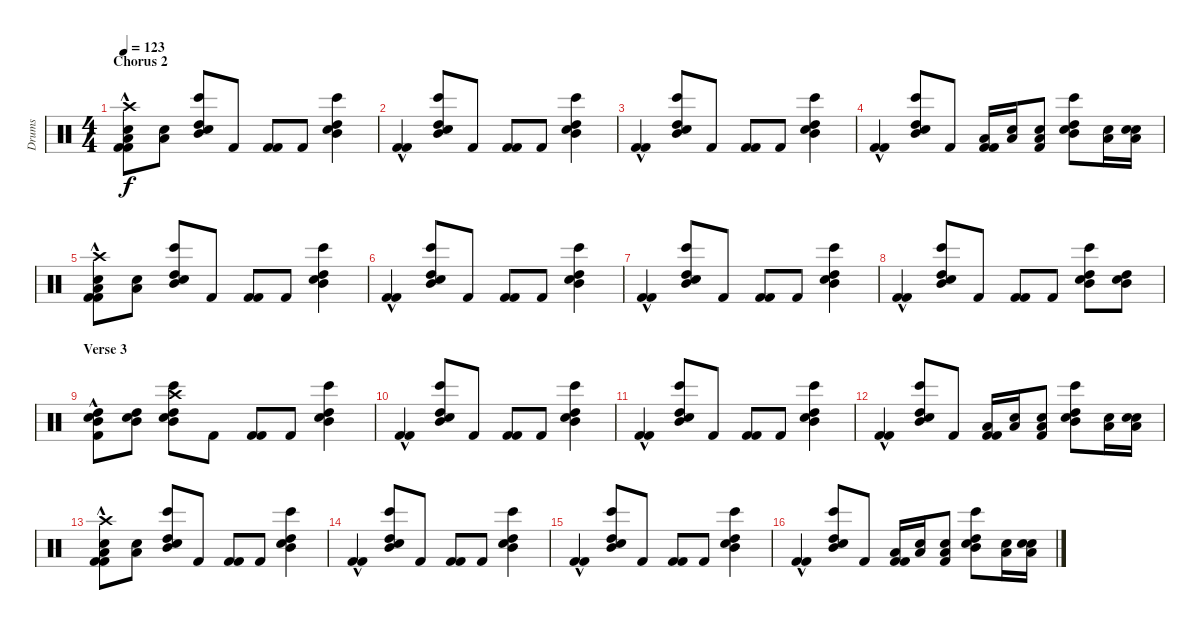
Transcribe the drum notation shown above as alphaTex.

\track ("Drums" "Drums") {instrument percussion}
\staff {score}
\articulation defaults
\ts (4 4)
\section ("" "Chorus 2")
\tempo 123
\clef neutral
\ks c
("Crash high (hit)" "Snare (hit) 2" "Low Floor Tom (hit)" "Kick (hit) 2"{hac} "Kick (hit) 2"{hac}).8{dy f} ("Snare (hit) 2" "Low Floor Tom (hit)").8 ("Bongo High (hit)" "High Tom (hit)" "Mid Tom (hit)" "Snare (hit) 2").8 "Kick (hit) 2".8 ("Kick (hit) 2" "Kick (hit) 2").8 "Kick (hit) 2".8 ("Bongo High (hit)" "High Tom (hit)" "Mid Tom (hit)" "Snare (hit) 2").4 |
("Kick (hit) 2"{hac} "Kick (hit) 2"{hac}).4 ("Bongo High (hit)" "High Tom (hit)" "Mid Tom (hit)" "Snare (hit) 2").8 "Kick (hit) 2".8 ("Kick (hit) 2" "Kick (hit) 2").8 "Kick (hit) 2".8 ("Bongo High (hit)" "High Tom (hit)" "Mid Tom (hit)" "Snare (hit) 2").4 |
("Kick (hit) 2"{hac} "Kick (hit) 2"{hac}).4 ("Bongo High (hit)" "High Tom (hit)" "Mid Tom (hit)" "Snare (hit) 2").8 "Kick (hit) 2".8 ("Kick (hit) 2" "Kick (hit) 2").8 "Kick (hit) 2".8 ("Bongo High (hit)" "High Tom (hit)" "Mid Tom (hit)" "Snare (hit) 2").4 |
("Kick (hit) 2"{hac} "Kick (hit) 2"{hac}).4 ("Bongo High (hit)" "High Tom (hit)" "Mid Tom (hit)" "Snare (hit) 2").8 "Kick (hit) 2".8 ("Low Floor Tom (hit)" "Kick (hit) 2" "Kick (hit) 2").16 ("Snare (hit) 2" "Low Floor Tom (hit)").16 ("Snare (hit) 2" "Low Floor Tom (hit)" "Kick (hit) 2").8 ("Bongo High (hit)" "High Tom (hit)" "Mid Tom (hit)" "Snare (hit) 2").8 ("Low Floor Tom (hit)" "Snare (hit) 2").16 ("Snare (hit) 2" "Low Floor Tom (hit)" "Snare (hit) 2").16 |
("Crash high (hit)" "Snare (hit) 2" "Low Floor Tom (hit)" "Kick (hit) 2"{hac} "Kick (hit) 2"{hac}).8 ("Snare (hit) 2" "Low Floor Tom (hit)").8 ("Bongo High (hit)" "High Tom (hit)" "Mid Tom (hit)" "Snare (hit) 2").8 "Kick (hit) 2".8 ("Kick (hit) 2" "Kick (hit) 2").8 "Kick (hit) 2".8 ("Bongo High (hit)" "High Tom (hit)" "Mid Tom (hit)" "Snare (hit) 2").4 |
("Kick (hit) 2"{hac} "Kick (hit) 2"{hac}).4 ("Bongo High (hit)" "High Tom (hit)" "Mid Tom (hit)" "Snare (hit) 2").8 "Kick (hit) 2".8 ("Kick (hit) 2" "Kick (hit) 2").8 "Kick (hit) 2".8 ("Bongo High (hit)" "High Tom (hit)" "Mid Tom (hit)" "Snare (hit) 2").4 |
("Kick (hit) 2"{hac} "Kick (hit) 2"{hac}).4 ("Bongo High (hit)" "High Tom (hit)" "Mid Tom (hit)" "Snare (hit) 2").8 "Kick (hit) 2".8 ("Kick (hit) 2" "Kick (hit) 2").8 "Kick (hit) 2".8 ("Bongo High (hit)" "High Tom (hit)" "Mid Tom (hit)" "Snare (hit) 2").4 |
("Kick (hit) 2"{hac} "Kick (hit) 2"{hac}).4 ("Bongo High (hit)" "High Tom (hit)" "Mid Tom (hit)" "Snare (hit) 2").8 "Kick (hit) 2".8 ("Kick (hit) 2" "Kick (hit) 2").8 "Kick (hit) 2".8 ("Bongo High (hit)" "High Tom (hit)" "Mid Tom (hit)" "Snare (hit) 2").8 ("High Tom (hit)" "Mid Tom (hit)" "Snare (hit) 2").8 |
\section ("" "Verse 3")
("High Tom (hit)" "Mid Tom (hit)" "Snare (hit) 2" "Kick (hit) 2"{hac}).8 ("High Tom (hit)" "Mid Tom (hit)" "Snare (hit) 2").8 ("Crash high (hit)" "Bongo High (hit)" "High Tom (hit)" "Mid Tom (hit)" "Snare (hit) 2").8 "Kick (hit) 2".8 ("Kick (hit) 2" "Kick (hit) 2").8 "Kick (hit) 2".8 ("Bongo High (hit)" "High Tom (hit)" "Mid Tom (hit)" "Snare (hit) 2").4 |
("Kick (hit) 2"{hac} "Kick (hit) 2"{hac}).4 ("Bongo High (hit)" "High Tom (hit)" "Mid Tom (hit)" "Snare (hit) 2").8 "Kick (hit) 2".8 ("Kick (hit) 2" "Kick (hit) 2").8 "Kick (hit) 2".8 ("Bongo High (hit)" "High Tom (hit)" "Mid Tom (hit)" "Snare (hit) 2").4 |
("Kick (hit) 2"{hac} "Kick (hit) 2"{hac}).4 ("Bongo High (hit)" "High Tom (hit)" "Mid Tom (hit)" "Snare (hit) 2").8 "Kick (hit) 2".8 ("Kick (hit) 2" "Kick (hit) 2").8 "Kick (hit) 2".8 ("Bongo High (hit)" "High Tom (hit)" "Mid Tom (hit)" "Snare (hit) 2").4 |
("Kick (hit) 2"{hac} "Kick (hit) 2"{hac}).4 ("Bongo High (hit)" "High Tom (hit)" "Mid Tom (hit)" "Snare (hit) 2").8 "Kick (hit) 2".8 ("Low Floor Tom (hit)" "Kick (hit) 2" "Kick (hit) 2").16 ("Snare (hit) 2" "Low Floor Tom (hit)").16 ("Snare (hit) 2" "Low Floor Tom (hit)" "Kick (hit) 2").8 ("Bongo High (hit)" "High Tom (hit)" "Mid Tom (hit)" "Snare (hit) 2").8 ("Low Floor Tom (hit)" "Snare (hit) 2").16 ("Snare (hit) 2" "Low Floor Tom (hit)" "Snare (hit) 2").16 |
("Crash high (hit)" "Snare (hit) 2" "Low Floor Tom (hit)" "Kick (hit) 2"{hac} "Kick (hit) 2"{hac}).8 ("Snare (hit) 2" "Low Floor Tom (hit)").8 ("Bongo High (hit)" "High Tom (hit)" "Mid Tom (hit)" "Snare (hit) 2").8 "Kick (hit) 2".8 ("Kick (hit) 2" "Kick (hit) 2").8 "Kick (hit) 2".8 ("Bongo High (hit)" "High Tom (hit)" "Mid Tom (hit)" "Snare (hit) 2").4 |
("Kick (hit) 2"{hac} "Kick (hit) 2"{hac}).4 ("Bongo High (hit)" "High Tom (hit)" "Mid Tom (hit)" "Snare (hit) 2").8 "Kick (hit) 2".8 ("Kick (hit) 2" "Kick (hit) 2").8 "Kick (hit) 2".8 ("Bongo High (hit)" "High Tom (hit)" "Mid Tom (hit)" "Snare (hit) 2").4 |
("Kick (hit) 2"{hac} "Kick (hit) 2"{hac}).4 ("Bongo High (hit)" "High Tom (hit)" "Mid Tom (hit)" "Snare (hit) 2").8 "Kick (hit) 2".8 ("Kick (hit) 2" "Kick (hit) 2").8 "Kick (hit) 2".8 ("Bongo High (hit)" "High Tom (hit)" "Mid Tom (hit)" "Snare (hit) 2").4 |
("Kick (hit) 2"{hac} "Kick (hit) 2"{hac}).4 ("Bongo High (hit)" "High Tom (hit)" "Mid Tom (hit)" "Snare (hit) 2").8 "Kick (hit) 2".8 ("Low Floor Tom (hit)" "Kick (hit) 2" "Kick (hit) 2").16 ("Snare (hit) 2" "Low Floor Tom (hit)").16 ("Snare (hit) 2" "Low Floor Tom (hit)" "Kick (hit) 2").8 ("Bongo High (hit)" "High Tom (hit)" "Mid Tom (hit)" "Snare (hit) 2").8 ("Low Floor Tom (hit)" "Snare (hit) 2").16 ("Snare (hit) 2" "Low Floor Tom (hit)" "Snare (hit) 2").16
